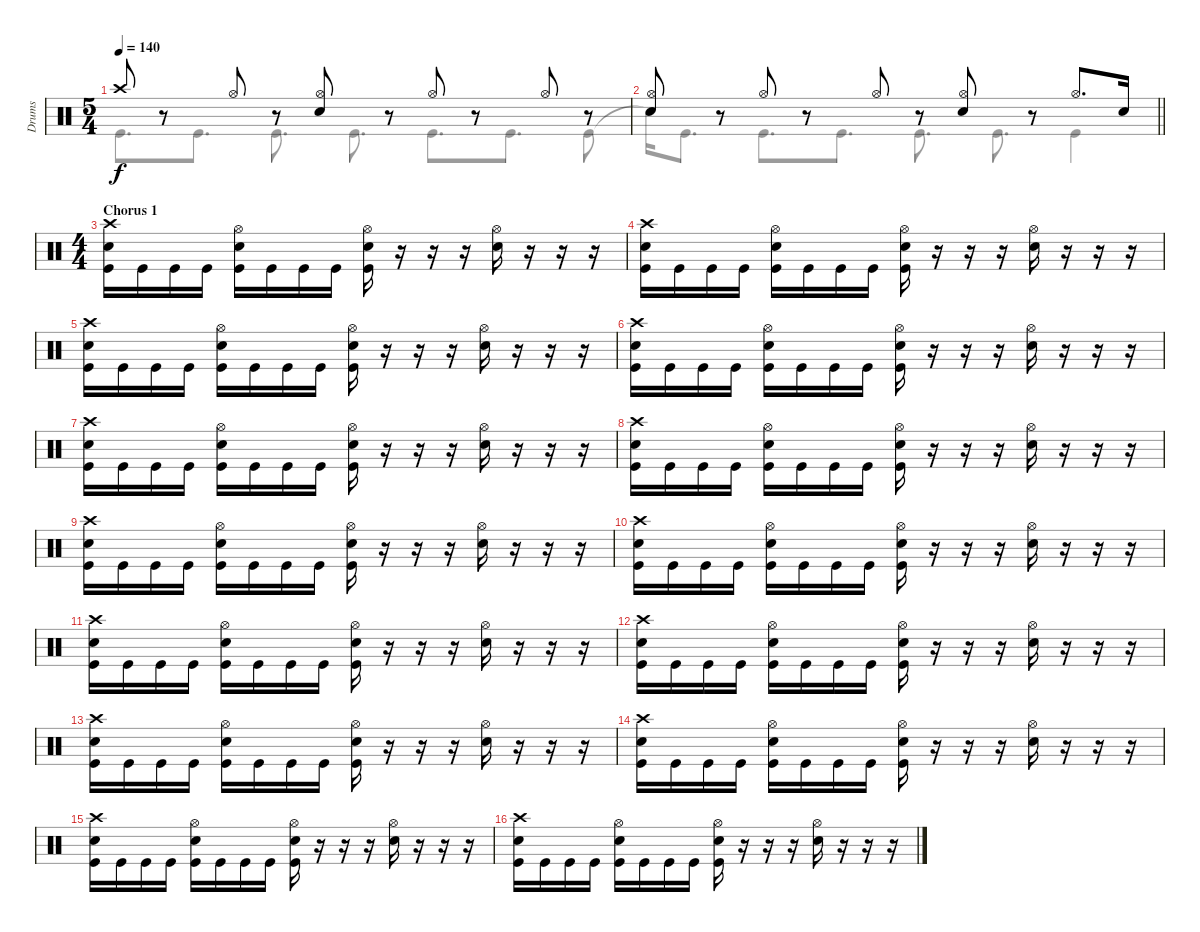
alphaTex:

\track ("Drums" "Drums") {instrument percussion}
\staff {score}
\articulation defaults
\voice
\ts (5 4)
\tempo 140
\clef neutral
\ks c "Crash high (hit)".8{dy f}
r.8 "Hi-Hat (open)".8 r.8 ("Hi-Hat (open)" "Snare (hit) 2").8 r.8 "Hi-Hat (open)".8 r.8 "Hi-Hat (open)".8 r.8 |
\barLineRight lightlight
("Hi-Hat (open)" "Snare (hit) 2").8 r.8 "Hi-Hat (open)".8 r.8 "Hi-Hat (open)".8 r.8 ("Hi-Hat (open)" "Snare (hit) 2").8 r.8 "Hi-Hat (open)".8{d} "Snare (hit) 2".16 |
\ts (4 4)
\section ("" "Chorus 1")
("Crash high (hit)" "Snare (hit) 2" "Kick (hit)").16 "Kick (hit)".16 "Kick (hit)".16 "Kick (hit)".16 ("Hi-Hat (open)" "Snare (hit) 2" "Kick (hit)").16 "Kick (hit)".16 "Kick (hit)".16 "Kick (hit)".16 ("Hi-Hat (open)" "Snare (hit) 2" "Kick (hit)").16 r.16 r.16 r.16 ("Hi-Hat (open)" "Snare (hit) 2").16 r.16 r.16 r.16 |
("Crash high (hit)" "Snare (hit) 2" "Kick (hit)").16 "Kick (hit)".16 "Kick (hit)".16 "Kick (hit)".16 ("Hi-Hat (open)" "Snare (hit) 2" "Kick (hit)").16 "Kick (hit)".16 "Kick (hit)".16 "Kick (hit)".16 ("Hi-Hat (open)" "Snare (hit) 2" "Kick (hit)").16 r.16 r.16 r.16 ("Hi-Hat (open)" "Snare (hit) 2").16 r.16 r.16 r.16 |
("Crash high (hit)" "Snare (hit) 2" "Kick (hit)").16 "Kick (hit)".16 "Kick (hit)".16 "Kick (hit)".16 ("Hi-Hat (open)" "Snare (hit) 2" "Kick (hit)").16 "Kick (hit)".16 "Kick (hit)".16 "Kick (hit)".16 ("Hi-Hat (open)" "Snare (hit) 2" "Kick (hit)").16 r.16 r.16 r.16 ("Hi-Hat (open)" "Snare (hit) 2").16 r.16 r.16 r.16 |
("Crash high (hit)" "Snare (hit) 2" "Kick (hit)").16 "Kick (hit)".16 "Kick (hit)".16 "Kick (hit)".16 ("Hi-Hat (open)" "Snare (hit) 2" "Kick (hit)").16 "Kick (hit)".16 "Kick (hit)".16 "Kick (hit)".16 ("Hi-Hat (open)" "Snare (hit) 2" "Kick (hit)").16 r.16 r.16 r.16 ("Hi-Hat (open)" "Snare (hit) 2").16 r.16 r.16 r.16 |
("Crash high (hit)" "Snare (hit) 2" "Kick (hit)").16 "Kick (hit)".16 "Kick (hit)".16 "Kick (hit)".16 ("Hi-Hat (open)" "Snare (hit) 2" "Kick (hit)").16 "Kick (hit)".16 "Kick (hit)".16 "Kick (hit)".16 ("Hi-Hat (open)" "Snare (hit) 2" "Kick (hit)").16 r.16 r.16 r.16 ("Hi-Hat (open)" "Snare (hit) 2").16 r.16 r.16 r.16 |
("Crash high (hit)" "Snare (hit) 2" "Kick (hit)").16 "Kick (hit)".16 "Kick (hit)".16 "Kick (hit)".16 ("Hi-Hat (open)" "Snare (hit) 2" "Kick (hit)").16 "Kick (hit)".16 "Kick (hit)".16 "Kick (hit)".16 ("Hi-Hat (open)" "Snare (hit) 2" "Kick (hit)").16 r.16 r.16 r.16 ("Hi-Hat (open)" "Snare (hit) 2").16 r.16 r.16 r.16 |
("Crash high (hit)" "Snare (hit) 2" "Kick (hit)").16 "Kick (hit)".16 "Kick (hit)".16 "Kick (hit)".16 ("Hi-Hat (open)" "Snare (hit) 2" "Kick (hit)").16 "Kick (hit)".16 "Kick (hit)".16 "Kick (hit)".16 ("Hi-Hat (open)" "Snare (hit) 2" "Kick (hit)").16 r.16 r.16 r.16 ("Hi-Hat (open)" "Snare (hit) 2").16 r.16 r.16 r.16 |
("Crash high (hit)" "Snare (hit) 2" "Kick (hit)").16 "Kick (hit)".16 "Kick (hit)".16 "Kick (hit)".16 ("Hi-Hat (open)" "Snare (hit) 2" "Kick (hit)").16 "Kick (hit)".16 "Kick (hit)".16 "Kick (hit)".16 ("Hi-Hat (open)" "Snare (hit) 2" "Kick (hit)").16 r.16 r.16 r.16 ("Hi-Hat (open)" "Snare (hit) 2").16 r.16 r.16 r.16 |
("Crash high (hit)" "Snare (hit) 2" "Kick (hit)").16 "Kick (hit)".16 "Kick (hit)".16 "Kick (hit)".16 ("Hi-Hat (open)" "Snare (hit) 2" "Kick (hit)").16 "Kick (hit)".16 "Kick (hit)".16 "Kick (hit)".16 ("Hi-Hat (open)" "Snare (hit) 2" "Kick (hit)").16 r.16 r.16 r.16 ("Hi-Hat (open)" "Snare (hit) 2").16 r.16 r.16 r.16 |
("Crash high (hit)" "Snare (hit) 2" "Kick (hit)").16 "Kick (hit)".16 "Kick (hit)".16 "Kick (hit)".16 ("Hi-Hat (open)" "Snare (hit) 2" "Kick (hit)").16 "Kick (hit)".16 "Kick (hit)".16 "Kick (hit)".16 ("Hi-Hat (open)" "Snare (hit) 2" "Kick (hit)").16 r.16 r.16 r.16 ("Hi-Hat (open)" "Snare (hit) 2").16 r.16 r.16 r.16 |
("Crash high (hit)" "Snare (hit) 2" "Kick (hit)").16 "Kick (hit)".16 "Kick (hit)".16 "Kick (hit)".16 ("Hi-Hat (open)" "Snare (hit) 2" "Kick (hit)").16 "Kick (hit)".16 "Kick (hit)".16 "Kick (hit)".16 ("Hi-Hat (open)" "Snare (hit) 2" "Kick (hit)").16 r.16 r.16 r.16 ("Hi-Hat (open)" "Snare (hit) 2").16 r.16 r.16 r.16 |
("Crash high (hit)" "Snare (hit) 2" "Kick (hit)").16 "Kick (hit)".16 "Kick (hit)".16 "Kick (hit)".16 ("Hi-Hat (open)" "Snare (hit) 2" "Kick (hit)").16 "Kick (hit)".16 "Kick (hit)".16 "Kick (hit)".16 ("Hi-Hat (open)" "Snare (hit) 2" "Kick (hit)").16 r.16 r.16 r.16 ("Hi-Hat (open)" "Snare (hit) 2").16 r.16 r.16 r.16 |
("Crash high (hit)" "Snare (hit) 2" "Kick (hit)").16 "Kick (hit)".16 "Kick (hit)".16 "Kick (hit)".16 ("Hi-Hat (open)" "Snare (hit) 2" "Kick (hit)").16 "Kick (hit)".16 "Kick (hit)".16 "Kick (hit)".16 ("Hi-Hat (open)" "Snare (hit) 2" "Kick (hit)").16 r.16 r.16 r.16 ("Hi-Hat (open)" "Snare (hit) 2").16 r.16 r.16 r.16 |
("Crash high (hit)" "Snare (hit) 2" "Kick (hit)").16 "Kick (hit)".16 "Kick (hit)".16 "Kick (hit)".16 ("Hi-Hat (open)" "Snare (hit) 2" "Kick (hit)").16 "Kick (hit)".16 "Kick (hit)".16 "Kick (hit)".16 ("Hi-Hat (open)" "Snare (hit) 2" "Kick (hit)").16 r.16 r.16 r.16 ("Hi-Hat (open)" "Snare (hit) 2").16 r.16 r.16 r.16
\voice
\clef neutral
\ottava regular
\simile none
\ks c "Kick (hit)".8{d dy f} "Kick (hit)".8{d} "Kick (hit)".8{d} "Kick (hit)".8{d} "Kick (hit)".8{d} "Kick (hit)".8{d} "Kick (hit)".8
|
\barLineRight lightlight "Snare (hit)"{t}.16 "Kick (hit)".8{d} "Kick (hit)".8{d} "Kick (hit)".8{d} "Kick (hit)".8{d} "Kick (hit)".8{d} "Kick (hit)".4
|
|
|
|
|
|
|
|
|
|
|
|
|
|
